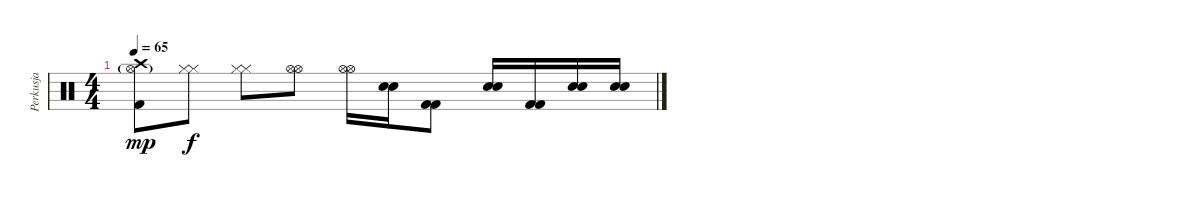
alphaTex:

\track ("Perkusja" "Perkusja") {instrument percussion}
\staff {score}
\articulation defaults
\ts (4 4)
\tempo 65
\clef neutral
\ks c
("Kick (hit) 2" "Hi-Hat (open)"{g} "Crash high (hit)").8{dy mp} ("Hi-Hat (closed)" "Hi-Hat (closed)").8{dy f} ("Hi-Hat (closed)" "Hi-Hat (closed)").8 ("Hi-Hat (open)" "Hi-Hat (open)").8 ("Hi-Hat (open)" "Hi-Hat (open)").16 ("Snare (hit) 2" "Snare (hit) 2").16 ("Kick (hit) 2" "Kick (hit) 2").8 ("Snare (hit) 2" "Snare (hit) 2").16 ("Kick (hit) 2" "Kick (hit) 2").16 ("Snare (hit) 2" "Snare (hit) 2").16 ("Snare (hit) 2" "Snare (hit) 2").16
